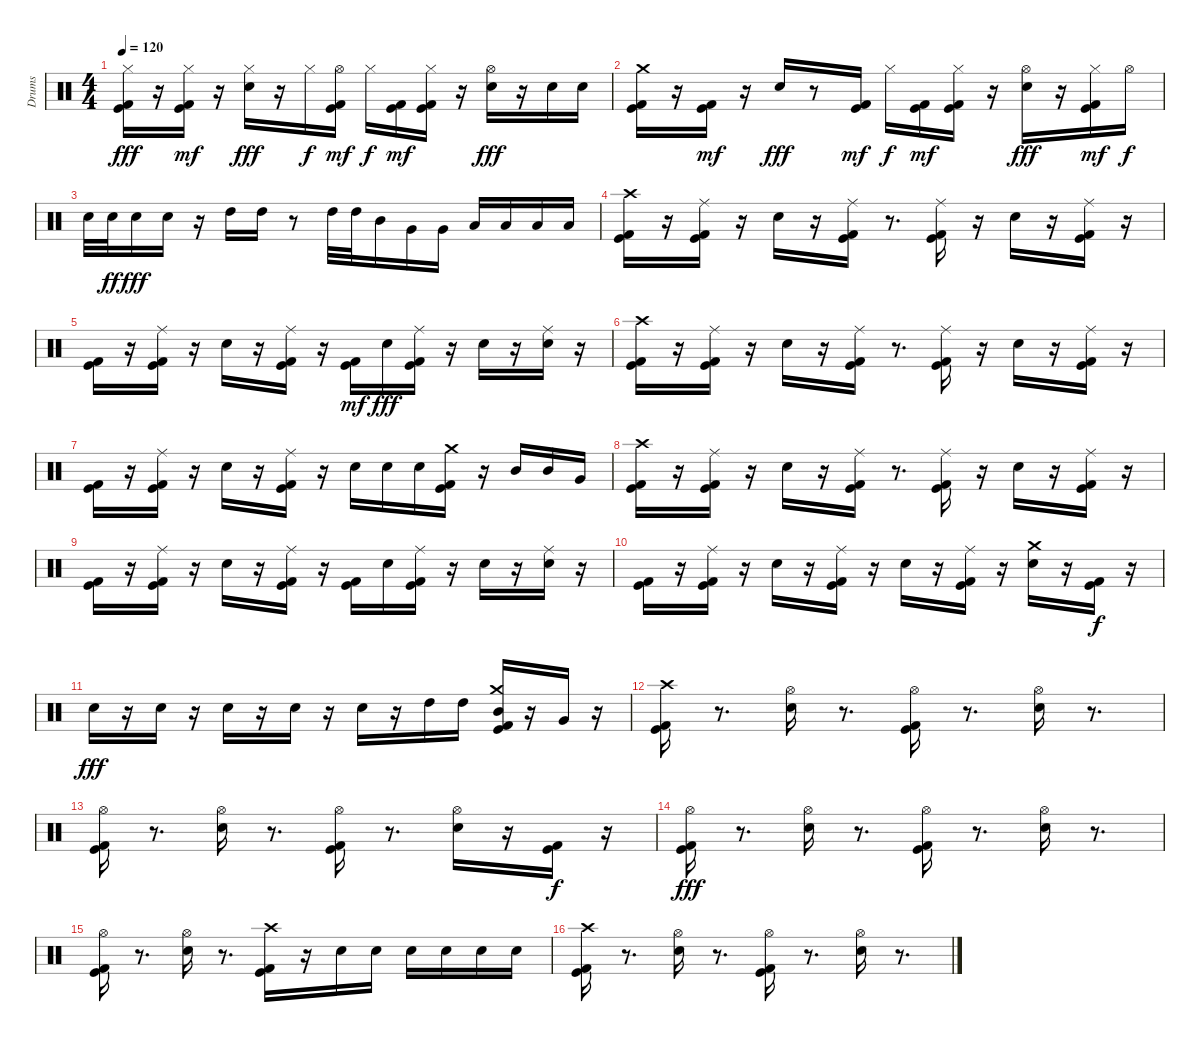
\track ("Drums" "Drums") {instrument percussion}
\staff {score}
\articulation defaults
\ts (4 4)
\tempo 120
\clef neutral
\ks c
("Kick (hit)" "Kick (hit) 2" "Hi-Hat (closed)").16{dy fff} r.16 ("Kick (hit)" "Kick (hit) 2" "Hi-Hat (closed)").16{dy mf} r.16 ("Electric Snare (hit)" "Hi-Hat (closed)").16{dy fff} r.16 "Hi-Hat (closed)".16{dy f} ("Kick (hit)" "Kick (hit) 2" "Hi-Hat (open)").16{dy mf} "Hi-Hat (closed)".16{dy f} ("Kick (hit)" "Kick (hit) 2").16{dy mf} ("Kick (hit)" "Kick (hit) 2" "Hi-Hat (closed)").16 r.16 ("Electric Snare (hit)" "Hi-Hat (open)").16{dy fff} r.16 "Electric Snare (hit)".16 "Electric Snare (hit)".16 |
("Kick (hit)" "Kick (hit) 2" "Crash medium (hit)").16 r.16 ("Kick (hit)" "Kick (hit) 2").16{dy mf} r.16 "Electric Snare (hit)".16{dy fff} r.8 ("Kick (hit)" "Kick (hit) 2").16{dy mf} "Hi-Hat (closed)".16{dy f} ("Kick (hit)" "Kick (hit) 2").16{dy mf} ("Kick (hit)" "Kick (hit) 2" "Hi-Hat (closed)").16 r.16 ("Electric Snare (hit)" "Hi-Hat (open)").16{dy fff} r.16 ("Kick (hit)" "Kick (hit) 2" "Hi-Hat (closed)").16{dy mf} "Hi-Hat (open)".16{dy f} |
"Electric Snare (hit)".32 "Electric Snare (hit)".32{dy ff} "Electric Snare (hit)".16{dy fff} "Electric Snare (hit)".16 r.16 "High Tom (hit)".16 "High Tom (hit)".16 r.8 "High Tom (hit)".32 "High Tom (hit)".32 "Mid Tom (hit)".16 "Very Low Tom (hit)".16 "Very Low Tom (hit)".16 "Low Floor Tom (hit)".16 "Low Floor Tom (hit)".16 "Low Floor Tom (hit)".16 "Low Floor Tom (hit)".16 |
("Kick (hit)" "Kick (hit) 2" "Crash high (hit)").16 r.16 ("Kick (hit)" "Kick (hit) 2" "Ride (middle)").16 r.16 "Electric Snare (hit)".16 r.16 ("Kick (hit)" "Kick (hit) 2" "Ride (middle)").16 r.8{d} ("Kick (hit)" "Kick (hit) 2" "Ride (middle)").16 r.16 "Electric Snare (hit)".16 r.16 ("Kick (hit)" "Kick (hit) 2" "Ride (middle)").16 r.16 |
("Kick (hit)" "Kick (hit) 2").16 r.16 ("Kick (hit)" "Kick (hit) 2" "Ride (middle)").16 r.16 "Electric Snare (hit)".16 r.16 ("Kick (hit)" "Kick (hit) 2" "Ride (middle)").16 r.16 ("Kick (hit)" "Kick (hit) 2").16{dy mf} "Electric Snare (hit)".16{dy fff} ("Kick (hit)" "Kick (hit) 2" "Ride (middle)").16 r.16 "Electric Snare (hit)".16 r.16 ("Electric Snare (hit)" "Ride (middle)").16 r.16 |
("Kick (hit)" "Kick (hit) 2" "Crash high (hit)").16 r.16 ("Kick (hit)" "Kick (hit) 2" "Ride (middle)").16 r.16 "Electric Snare (hit)".16 r.16 ("Kick (hit)" "Kick (hit) 2" "Ride (middle)").16 r.8{d} ("Kick (hit)" "Kick (hit) 2" "Ride (middle)").16 r.16 "Electric Snare (hit)".16 r.16 ("Kick (hit)" "Kick (hit) 2" "Ride (middle)").16 r.16 |
("Kick (hit)" "Kick (hit) 2").16 r.16 ("Kick (hit)" "Kick (hit) 2" "Ride (middle)").16 r.16 "Electric Snare (hit)".16 r.16 ("Kick (hit)" "Kick (hit) 2" "Ride (middle)").16 r.16 "Electric Snare (hit)".16 "Electric Snare (hit)".16 "Electric Snare (hit)".16 ("Kick (hit)" "Kick (hit) 2" "Crash medium (hit)").16 r.16 "Mid Tom (hit)".16 "Mid Tom (hit)".16 "Very Low Tom (hit)".16 |
("Kick (hit)" "Kick (hit) 2" "Crash high (hit)").16 r.16 ("Kick (hit)" "Kick (hit) 2" "Ride (middle)").16 r.16 "Electric Snare (hit)".16 r.16 ("Kick (hit)" "Kick (hit) 2" "Ride (middle)").16 r.8{d} ("Kick (hit)" "Kick (hit) 2" "Ride (middle)").16 r.16 "Electric Snare (hit)".16 r.16 ("Kick (hit)" "Kick (hit) 2" "Ride (middle)").16 r.16 |
("Kick (hit)" "Kick (hit) 2").16 r.16 ("Kick (hit)" "Kick (hit) 2" "Ride (middle)").16 r.16 "Electric Snare (hit)".16 r.16 ("Kick (hit)" "Kick (hit) 2" "Ride (middle)").16 r.16 ("Kick (hit)" "Kick (hit) 2").16 "Electric Snare (hit)".16 ("Kick (hit)" "Kick (hit) 2" "Ride (middle)").16 r.16 "Electric Snare (hit)".16 r.16 ("Electric Snare (hit)" "Ride (middle)").16 r.16 |
("Kick (hit)" "Kick (hit) 2").16 r.16 ("Kick (hit)" "Kick (hit) 2" "Ride (middle)").16 r.16 "Electric Snare (hit)".16 r.16 ("Kick (hit)" "Kick (hit) 2" "Ride (middle)").16 r.16 "Electric Snare (hit)".16 r.16 ("Kick (hit)" "Kick (hit) 2" "Ride (middle)").16 r.16 ("Electric Snare (hit)" "Crash medium (hit)").16 r.16 ("Kick (hit)" "Kick (hit) 2").16{dy f} r.16 |
"Electric Snare (hit)".16{dy fff} r.16 "Electric Snare (hit)".16 r.16 "Electric Snare (hit)".16 r.16 "Electric Snare (hit)".16 r.16 "Electric Snare (hit)".16 r.16 "High Tom (hit)".16 "High Tom (hit)".16 ("Kick (hit)" "Kick (hit) 2" "Mid Tom (hit)" "Crash medium (hit)").16 r.16 "Very Low Tom (hit)".16 r.16 |
("Kick (hit)" "Kick (hit) 2" "Crash high (hit)").16 r.8{d} ("Electric Snare (hit)" "Hi-Hat (open)").16 r.8{d} ("Kick (hit)" "Kick (hit) 2" "Hi-Hat (open)").16 r.8{d} ("Electric Snare (hit)" "Hi-Hat (open)").16 r.8{d} |
("Kick (hit)" "Kick (hit) 2" "Hi-Hat (open)").16 r.8{d} ("Electric Snare (hit)" "Hi-Hat (open)").16 r.8{d} ("Kick (hit)" "Kick (hit) 2" "Hi-Hat (open)").16 r.8{d} ("Electric Snare (hit)" "Hi-Hat (open)").16 r.16 ("Kick (hit)" "Kick (hit) 2").16{dy f} r.16 |
("Kick (hit)" "Kick (hit) 2" "Hi-Hat (open)").16{dy fff} r.8{d} ("Electric Snare (hit)" "Hi-Hat (open)").16 r.8{d} ("Kick (hit)" "Kick (hit) 2" "Hi-Hat (open)").16 r.8{d} ("Electric Snare (hit)" "Hi-Hat (open)").16 r.8{d} |
("Kick (hit)" "Kick (hit) 2" "Hi-Hat (open)").16 r.8{d} ("Electric Snare (hit)" "Hi-Hat (open)").16 r.8{d} ("Kick (hit)" "Kick (hit) 2" "Crash high (hit)").16 r.16 "Electric Snare (hit)".16 "Electric Snare (hit)".16 "Electric Snare (hit)".16 "Electric Snare (hit)".16 "Electric Snare (hit)".16 "Electric Snare (hit)".16 |
("Kick (hit)" "Kick (hit) 2" "Crash high (hit)").16 r.8{d} ("Electric Snare (hit)" "Hi-Hat (open)").16 r.8{d} ("Kick (hit)" "Kick (hit) 2" "Hi-Hat (open)").16 r.8{d} ("Electric Snare (hit)" "Hi-Hat (open)").16 r.8{d}
